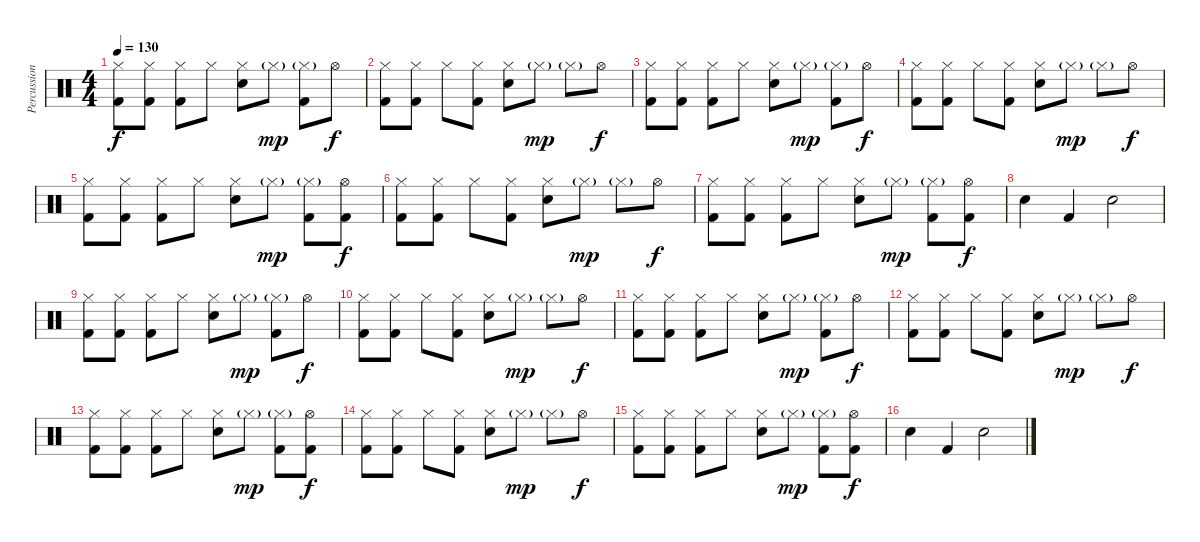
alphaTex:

\track ("Percussion" "Percussion") {instrument percussion}
\staff {score}
\articulation defaults
\ts (4 4)
\tempo 130
\clef neutral
\ks c
("Hi-Hat (closed)" "Kick (hit) 2").8{dy f} ("Hi-Hat (closed)" "Kick (hit) 2").8 ("Hi-Hat (closed)" "Kick (hit) 2").8 "Hi-Hat (closed)".8 ("Hi-Hat (closed)" "Snare (hit) 2").8 "Hi-Hat (closed)"{g}.8{dy mp} ("Hi-Hat (closed)"{g} "Kick (hit) 2").8 "Hi-Hat (open)".8{dy f} |
("Hi-Hat (closed)" "Kick (hit) 2").8 ("Hi-Hat (closed)" "Kick (hit) 2").8 "Hi-Hat (closed)".8 ("Hi-Hat (closed)" "Kick (hit) 2").8 ("Hi-Hat (closed)" "Snare (hit) 2").8 "Hi-Hat (closed)"{g}.8{dy mp} "Hi-Hat (closed)"{g}.8 "Hi-Hat (open)".8{dy f} |
("Hi-Hat (closed)" "Kick (hit) 2").8 ("Hi-Hat (closed)" "Kick (hit) 2").8 ("Hi-Hat (closed)" "Kick (hit) 2").8 "Hi-Hat (closed)".8 ("Hi-Hat (closed)" "Snare (hit) 2").8 "Hi-Hat (closed)"{g}.8{dy mp} ("Hi-Hat (closed)"{g} "Kick (hit) 2").8 "Hi-Hat (open)".8{dy f} |
("Hi-Hat (closed)" "Kick (hit) 2").8 ("Hi-Hat (closed)" "Kick (hit) 2").8 "Hi-Hat (closed)".8 ("Hi-Hat (closed)" "Kick (hit) 2").8 ("Hi-Hat (closed)" "Snare (hit) 2").8 "Hi-Hat (closed)"{g}.8{dy mp} "Hi-Hat (closed)"{g}.8 "Hi-Hat (open)".8{dy f} |
("Hi-Hat (closed)" "Kick (hit) 2").8 ("Hi-Hat (closed)" "Kick (hit) 2").8 ("Hi-Hat (closed)" "Kick (hit) 2").8 "Hi-Hat (closed)".8 ("Hi-Hat (closed)" "Snare (hit) 2").8 "Hi-Hat (closed)"{g}.8{dy mp} ("Hi-Hat (closed)"{g} "Kick (hit) 2").8 ("Hi-Hat (open)" "Kick (hit) 2").8{dy f} |
("Hi-Hat (closed)" "Kick (hit) 2").8 ("Hi-Hat (closed)" "Kick (hit) 2").8 "Hi-Hat (closed)".8 ("Hi-Hat (closed)" "Kick (hit) 2").8 ("Hi-Hat (closed)" "Snare (hit) 2").8 "Hi-Hat (closed)"{g}.8{dy mp} "Hi-Hat (closed)"{g}.8 "Hi-Hat (open)".8{dy f} |
("Hi-Hat (closed)" "Kick (hit) 2").8 ("Hi-Hat (closed)" "Kick (hit) 2").8 ("Hi-Hat (closed)" "Kick (hit) 2").8 "Hi-Hat (closed)".8 ("Hi-Hat (closed)" "Snare (hit) 2").8 "Hi-Hat (closed)"{g}.8{dy mp} ("Hi-Hat (closed)"{g} "Kick (hit) 2").8 ("Hi-Hat (open)" "Kick (hit) 2").8{dy f} |
"Snare (hit) 2".4 "Kick (hit) 2".4 "Snare (hit) 2".2 |
("Hi-Hat (closed)" "Kick (hit) 2").8 ("Hi-Hat (closed)" "Kick (hit) 2").8 ("Hi-Hat (closed)" "Kick (hit) 2").8 "Hi-Hat (closed)".8 ("Hi-Hat (closed)" "Snare (hit) 2").8 "Hi-Hat (closed)"{g}.8{dy mp} ("Hi-Hat (closed)"{g} "Kick (hit) 2").8 "Hi-Hat (open)".8{dy f} |
("Hi-Hat (closed)" "Kick (hit) 2").8 ("Hi-Hat (closed)" "Kick (hit) 2").8 "Hi-Hat (closed)".8 ("Hi-Hat (closed)" "Kick (hit) 2").8 ("Hi-Hat (closed)" "Snare (hit) 2").8 "Hi-Hat (closed)"{g}.8{dy mp} "Hi-Hat (closed)"{g}.8 "Hi-Hat (open)".8{dy f} |
("Hi-Hat (closed)" "Kick (hit) 2").8 ("Hi-Hat (closed)" "Kick (hit) 2").8 ("Hi-Hat (closed)" "Kick (hit) 2").8 "Hi-Hat (closed)".8 ("Hi-Hat (closed)" "Snare (hit) 2").8 "Hi-Hat (closed)"{g}.8{dy mp} ("Hi-Hat (closed)"{g} "Kick (hit) 2").8 "Hi-Hat (open)".8{dy f} |
("Hi-Hat (closed)" "Kick (hit) 2").8 ("Hi-Hat (closed)" "Kick (hit) 2").8 "Hi-Hat (closed)".8 ("Hi-Hat (closed)" "Kick (hit) 2").8 ("Hi-Hat (closed)" "Snare (hit) 2").8 "Hi-Hat (closed)"{g}.8{dy mp} "Hi-Hat (closed)"{g}.8 "Hi-Hat (open)".8{dy f} |
("Hi-Hat (closed)" "Kick (hit) 2").8 ("Hi-Hat (closed)" "Kick (hit) 2").8 ("Hi-Hat (closed)" "Kick (hit) 2").8 "Hi-Hat (closed)".8 ("Hi-Hat (closed)" "Snare (hit) 2").8 "Hi-Hat (closed)"{g}.8{dy mp} ("Hi-Hat (closed)"{g} "Kick (hit) 2").8 ("Hi-Hat (open)" "Kick (hit) 2").8{dy f} |
("Hi-Hat (closed)" "Kick (hit) 2").8 ("Hi-Hat (closed)" "Kick (hit) 2").8 "Hi-Hat (closed)".8 ("Hi-Hat (closed)" "Kick (hit) 2").8 ("Hi-Hat (closed)" "Snare (hit) 2").8 "Hi-Hat (closed)"{g}.8{dy mp} "Hi-Hat (closed)"{g}.8 "Hi-Hat (open)".8{dy f} |
("Hi-Hat (closed)" "Kick (hit) 2").8 ("Hi-Hat (closed)" "Kick (hit) 2").8 ("Hi-Hat (closed)" "Kick (hit) 2").8 "Hi-Hat (closed)".8 ("Hi-Hat (closed)" "Snare (hit) 2").8 "Hi-Hat (closed)"{g}.8{dy mp} ("Hi-Hat (closed)"{g} "Kick (hit) 2").8 ("Hi-Hat (open)" "Kick (hit) 2").8{dy f} |
"Snare (hit) 2".4 "Kick (hit) 2".4 "Snare (hit) 2".2
